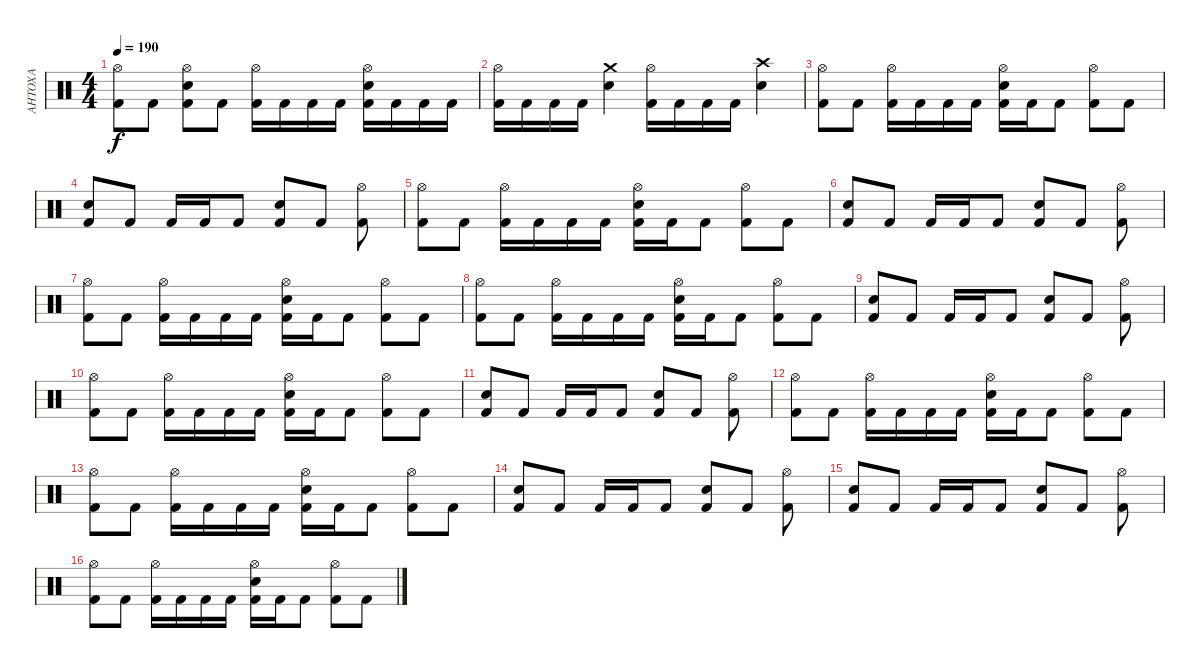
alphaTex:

\track ("АНТОХА" "АНТОХА") {instrument percussion}
\staff {score}
\articulation defaults
\ts (4 4)
\tempo 190
\clef neutral
\ks c
("Hi-Hat (open)" "Kick (hit) 2").8{dy f} "Kick (hit) 2".8 ("Hi-Hat (open)" "Electric Snare (hit)" "Kick (hit) 2").8 "Kick (hit) 2".8 ("Hi-Hat (open)" "Kick (hit) 2").16 "Kick (hit) 2".16 "Kick (hit) 2".16 "Kick (hit) 2".16 ("Hi-Hat (open)" "Electric Snare (hit)" "Kick (hit) 2").16 "Kick (hit) 2".16 "Kick (hit) 2".16 "Kick (hit) 2".16 |
("Hi-Hat (open)" "Kick (hit) 2").16 "Kick (hit) 2".16 "Kick (hit) 2".16 "Kick (hit) 2".16 ("Crash medium (hit)" "Electric Snare (hit)").4 ("Hi-Hat (open)" "Kick (hit) 2").16 "Kick (hit) 2".16 "Kick (hit) 2".16 "Kick (hit) 2".16 ("Crash high (hit)" "Electric Snare (hit)").4 |
("Kick (hit) 2" "Hi-Hat (open)").8 "Kick (hit) 2".8 ("Hi-Hat (open)" "Kick (hit) 2").16 "Kick (hit) 2".16 "Kick (hit) 2".16 "Kick (hit) 2".16 ("Hi-Hat (open)" "Electric Snare (hit)" "Kick (hit) 2").16 "Kick (hit) 2".16 "Kick (hit) 2".8 ("Hi-Hat (open)" "Kick (hit) 2").8 "Kick (hit) 2".8 |
("Kick (hit) 2" "Snare (hit) 2").8 "Kick (hit) 2".8 "Kick (hit) 2".16 "Kick (hit) 2".16 "Kick (hit) 2".8 ("Kick (hit) 2" "Snare (hit) 2").8 "Kick (hit) 2".8 ("Kick (hit) 2" "Hi-Hat (open)").8 |
("Kick (hit) 2" "Hi-Hat (open)").8 "Kick (hit) 2".8 ("Hi-Hat (open)" "Kick (hit) 2").16 "Kick (hit) 2".16 "Kick (hit) 2".16 "Kick (hit) 2".16 ("Hi-Hat (open)" "Electric Snare (hit)" "Kick (hit) 2").16 "Kick (hit) 2".16 "Kick (hit) 2".8 ("Hi-Hat (open)" "Kick (hit) 2").8 "Kick (hit) 2".8 |
("Kick (hit) 2" "Snare (hit) 2").8 "Kick (hit) 2".8 "Kick (hit) 2".16 "Kick (hit) 2".16 "Kick (hit) 2".8 ("Kick (hit) 2" "Snare (hit) 2").8 "Kick (hit) 2".8 ("Kick (hit) 2" "Hi-Hat (open)").8 |
("Kick (hit) 2" "Hi-Hat (open)").8 "Kick (hit) 2".8 ("Hi-Hat (open)" "Kick (hit) 2").16 "Kick (hit) 2".16 "Kick (hit) 2".16 "Kick (hit) 2".16 ("Hi-Hat (open)" "Electric Snare (hit)" "Kick (hit) 2").16 "Kick (hit) 2".16 "Kick (hit) 2".8 ("Hi-Hat (open)" "Kick (hit) 2").8 "Kick (hit) 2".8 |
("Kick (hit) 2" "Hi-Hat (open)").8 "Kick (hit) 2".8 ("Hi-Hat (open)" "Kick (hit) 2").16 "Kick (hit) 2".16 "Kick (hit) 2".16 "Kick (hit) 2".16 ("Hi-Hat (open)" "Electric Snare (hit)" "Kick (hit) 2").16 "Kick (hit) 2".16 "Kick (hit) 2".8 ("Hi-Hat (open)" "Kick (hit) 2").8 "Kick (hit) 2".8 |
("Kick (hit) 2" "Snare (hit) 2").8 "Kick (hit) 2".8 "Kick (hit) 2".16 "Kick (hit) 2".16 "Kick (hit) 2".8 ("Kick (hit) 2" "Snare (hit) 2").8 "Kick (hit) 2".8 ("Kick (hit) 2" "Hi-Hat (open)").8 |
("Kick (hit) 2" "Hi-Hat (open)").8 "Kick (hit) 2".8 ("Hi-Hat (open)" "Kick (hit) 2").16 "Kick (hit) 2".16 "Kick (hit) 2".16 "Kick (hit) 2".16 ("Hi-Hat (open)" "Electric Snare (hit)" "Kick (hit) 2").16 "Kick (hit) 2".16 "Kick (hit) 2".8 ("Hi-Hat (open)" "Kick (hit) 2").8 "Kick (hit) 2".8 |
("Kick (hit) 2" "Snare (hit) 2").8 "Kick (hit) 2".8 "Kick (hit) 2".16 "Kick (hit) 2".16 "Kick (hit) 2".8 ("Kick (hit) 2" "Snare (hit) 2").8 "Kick (hit) 2".8 ("Kick (hit) 2" "Hi-Hat (open)").8 |
("Kick (hit) 2" "Hi-Hat (open)").8 "Kick (hit) 2".8 ("Hi-Hat (open)" "Kick (hit) 2").16 "Kick (hit) 2".16 "Kick (hit) 2".16 "Kick (hit) 2".16 ("Hi-Hat (open)" "Electric Snare (hit)" "Kick (hit) 2").16 "Kick (hit) 2".16 "Kick (hit) 2".8 ("Hi-Hat (open)" "Kick (hit) 2").8 "Kick (hit) 2".8 |
("Kick (hit) 2" "Hi-Hat (open)").8 "Kick (hit) 2".8 ("Hi-Hat (open)" "Kick (hit) 2").16 "Kick (hit) 2".16 "Kick (hit) 2".16 "Kick (hit) 2".16 ("Hi-Hat (open)" "Electric Snare (hit)" "Kick (hit) 2").16 "Kick (hit) 2".16 "Kick (hit) 2".8 ("Hi-Hat (open)" "Kick (hit) 2").8 "Kick (hit) 2".8 |
("Kick (hit) 2" "Snare (hit) 2").8 "Kick (hit) 2".8 "Kick (hit) 2".16 "Kick (hit) 2".16 "Kick (hit) 2".8 ("Kick (hit) 2" "Snare (hit) 2").8 "Kick (hit) 2".8 ("Kick (hit) 2" "Hi-Hat (open)").8 |
("Kick (hit) 2" "Snare (hit) 2").8 "Kick (hit) 2".8 "Kick (hit) 2".16 "Kick (hit) 2".16 "Kick (hit) 2".8 ("Kick (hit) 2" "Snare (hit) 2").8 "Kick (hit) 2".8 ("Kick (hit) 2" "Hi-Hat (open)").8 |
("Kick (hit) 2" "Hi-Hat (open)").8 "Kick (hit) 2".8 ("Hi-Hat (open)" "Kick (hit) 2").16 "Kick (hit) 2".16 "Kick (hit) 2".16 "Kick (hit) 2".16 ("Hi-Hat (open)" "Electric Snare (hit)" "Kick (hit) 2").16 "Kick (hit) 2".16 "Kick (hit) 2".8 ("Hi-Hat (open)" "Kick (hit) 2").8 "Kick (hit) 2".8
